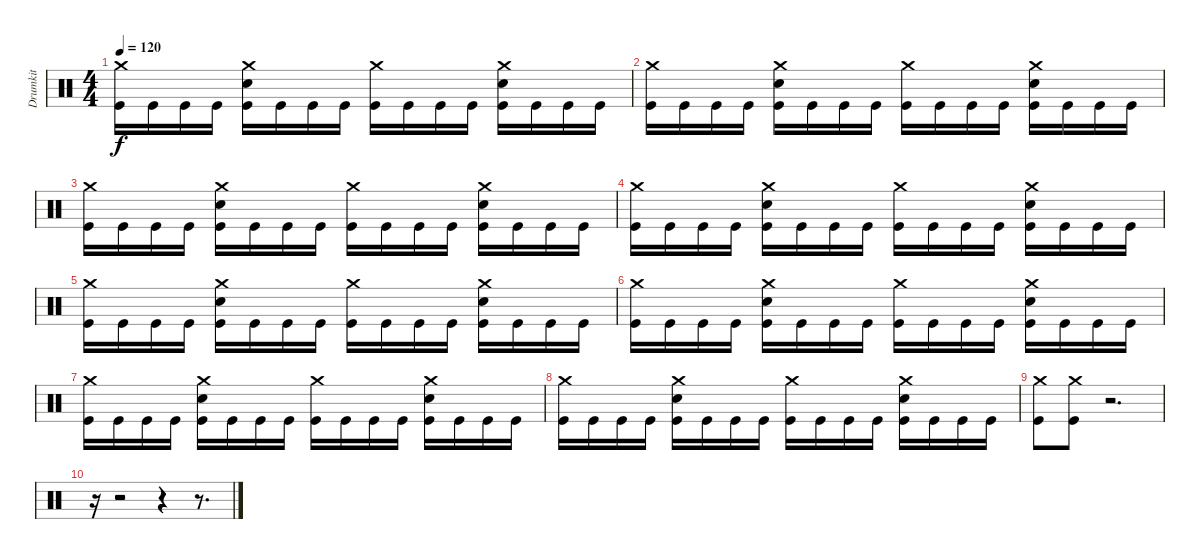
\track ("Drumkit" "Drumkit") {instrument percussion}
\staff {score}
\articulation defaults
\ts (4 4)
\tempo 120
\clef neutral
\ks c
("Crash medium (hit)" "Kick (hit)").16{dy f} "Kick (hit)".16 "Kick (hit)".16 "Kick (hit)".16 ("Crash medium (hit)" "Snare (hit) 2" "Kick (hit)").16 "Kick (hit)".16 "Kick (hit)".16 "Kick (hit)".16 ("Crash medium (hit)" "Kick (hit)").16 "Kick (hit)".16 "Kick (hit)".16 "Kick (hit)".16 ("Crash medium (hit)" "Snare (hit) 2" "Kick (hit)").16 "Kick (hit)".16 "Kick (hit)".16 "Kick (hit)".16 |
("Crash medium (hit)" "Kick (hit)").16 "Kick (hit)".16 "Kick (hit)".16 "Kick (hit)".16 ("Crash medium (hit)" "Snare (hit) 2" "Kick (hit)").16 "Kick (hit)".16 "Kick (hit)".16 "Kick (hit)".16 ("Crash medium (hit)" "Kick (hit)").16 "Kick (hit)".16 "Kick (hit)".16 "Kick (hit)".16 ("Crash medium (hit)" "Snare (hit) 2" "Kick (hit)").16 "Kick (hit)".16 "Kick (hit)".16 "Kick (hit)".16 |
("Crash medium (hit)" "Kick (hit)").16 "Kick (hit)".16 "Kick (hit)".16 "Kick (hit)".16 ("Crash medium (hit)" "Snare (hit) 2" "Kick (hit)").16 "Kick (hit)".16 "Kick (hit)".16 "Kick (hit)".16 ("Crash medium (hit)" "Kick (hit)").16 "Kick (hit)".16 "Kick (hit)".16 "Kick (hit)".16 ("Crash medium (hit)" "Snare (hit) 2" "Kick (hit)").16 "Kick (hit)".16 "Kick (hit)".16 "Kick (hit)".16 |
("Crash medium (hit)" "Kick (hit)").16 "Kick (hit)".16 "Kick (hit)".16 "Kick (hit)".16 ("Crash medium (hit)" "Snare (hit) 2" "Kick (hit)").16 "Kick (hit)".16 "Kick (hit)".16 "Kick (hit)".16 ("Crash medium (hit)" "Kick (hit)").16 "Kick (hit)".16 "Kick (hit)".16 "Kick (hit)".16 ("Crash medium (hit)" "Snare (hit) 2" "Kick (hit)").16 "Kick (hit)".16 "Kick (hit)".16 "Kick (hit)".16 |
("Crash medium (hit)" "Kick (hit)").16 "Kick (hit)".16 "Kick (hit)".16 "Kick (hit)".16 ("Crash medium (hit)" "Snare (hit) 2" "Kick (hit)").16 "Kick (hit)".16 "Kick (hit)".16 "Kick (hit)".16 ("Crash medium (hit)" "Kick (hit)").16 "Kick (hit)".16 "Kick (hit)".16 "Kick (hit)".16 ("Crash medium (hit)" "Snare (hit) 2" "Kick (hit)").16 "Kick (hit)".16 "Kick (hit)".16 "Kick (hit)".16 |
("Crash medium (hit)" "Kick (hit)").16 "Kick (hit)".16 "Kick (hit)".16 "Kick (hit)".16 ("Crash medium (hit)" "Snare (hit) 2" "Kick (hit)").16 "Kick (hit)".16 "Kick (hit)".16 "Kick (hit)".16 ("Crash medium (hit)" "Kick (hit)").16 "Kick (hit)".16 "Kick (hit)".16 "Kick (hit)".16 ("Crash medium (hit)" "Snare (hit) 2" "Kick (hit)").16 "Kick (hit)".16 "Kick (hit)".16 "Kick (hit)".16 |
("Crash medium (hit)" "Kick (hit)").16 "Kick (hit)".16 "Kick (hit)".16 "Kick (hit)".16 ("Crash medium (hit)" "Snare (hit) 2" "Kick (hit)").16 "Kick (hit)".16 "Kick (hit)".16 "Kick (hit)".16 ("Crash medium (hit)" "Kick (hit)").16 "Kick (hit)".16 "Kick (hit)".16 "Kick (hit)".16 ("Crash medium (hit)" "Snare (hit) 2" "Kick (hit)").16 "Kick (hit)".16 "Kick (hit)".16 "Kick (hit)".16 |
("Crash medium (hit)" "Kick (hit)").16 "Kick (hit)".16 "Kick (hit)".16 "Kick (hit)".16 ("Crash medium (hit)" "Snare (hit) 2" "Kick (hit)").16 "Kick (hit)".16 "Kick (hit)".16 "Kick (hit)".16 ("Crash medium (hit)" "Kick (hit)").16 "Kick (hit)".16 "Kick (hit)".16 "Kick (hit)".16 ("Crash medium (hit)" "Snare (hit) 2" "Kick (hit)").16 "Kick (hit)".16 "Kick (hit)".16 "Kick (hit)".16 |
("Crash medium (hit)" "Kick (hit)").8 ("Crash medium (hit)" "Kick (hit)").8 r.2{d} |
r.16 r.2 r.4 r.8{d}
